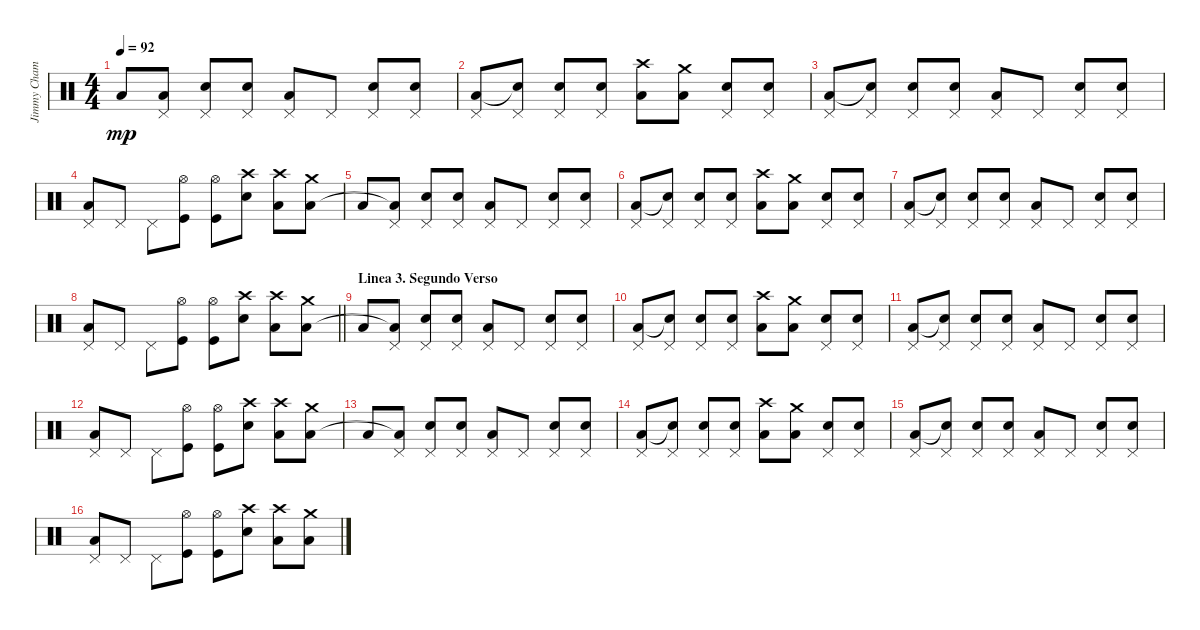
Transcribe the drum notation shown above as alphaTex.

\track ("Jimmy Chamberlin" "Jimmy Cham") {instrument percussion}
\staff {score}
\articulation defaults
\ts (4 4)
\tempo 92
\clef neutral
\ks c "Low Floor Tom (hit)".8{dy mp}
("Pedal Hi-Hat (hit)" "Low Floor Tom (hit)"{t}).8 ("Pedal Hi-Hat (hit)" "Snare (hit) 2").8 ("Pedal Hi-Hat (hit)" "Snare (hit) 2").8 ("Pedal Hi-Hat (hit)" "Low Tom (hit)").8 "Pedal Hi-Hat (hit)".8 ("Pedal Hi-Hat (hit)" "Snare (hit) 2").8 ("Pedal Hi-Hat (hit)" "Snare (hit) 2").8 |
("Pedal Hi-Hat (hit)" "Low Tom (hit)").8 ("Pedal Hi-Hat (hit)" "Snare (hit)"{t}).8 ("Pedal Hi-Hat (hit)" "Snare (hit) 2").8 ("Pedal Hi-Hat (hit)" "Snare (hit) 2").8 ("Crash high (hit)" "Low Tom (hit)").8 ("Crash medium (hit)" "Low Floor Tom (hit)").8 ("Pedal Hi-Hat (hit)" "Snare (hit) 2").8 ("Pedal Hi-Hat (hit)" "Snare (hit) 2").8 |
("Pedal Hi-Hat (hit)" "Low Tom (hit)").8 ("Pedal Hi-Hat (hit)" "Snare (hit)"{t}).8 ("Pedal Hi-Hat (hit)" "Snare (hit) 2").8 ("Pedal Hi-Hat (hit)" "Snare (hit) 2").8 ("Pedal Hi-Hat (hit)" "Low Floor Tom (hit)").8 "Pedal Hi-Hat (hit)".8 ("Pedal Hi-Hat (hit)" "Snare (hit) 2").8 ("Pedal Hi-Hat (hit)" "Snare (hit) 2").8 |
("Pedal Hi-Hat (hit)" "Low Tom (hit)").8 "Pedal Hi-Hat (hit)".8 "Pedal Hi-Hat (hit)".8 ("Hi-Hat (open)" "Kick (hit)").8 ("Hi-Hat (open)" "Kick (hit)").8 ("Crash high (hit)" "Snare (hit) 2").8 ("Crash high (hit)" "Low Tom (hit)").8 ("Crash medium (hit)" "Low Floor Tom (hit)").8 |
"Low Floor Tom (hit)".8 ("Pedal Hi-Hat (hit)" "Low Floor Tom (hit)"{t}).8 ("Pedal Hi-Hat (hit)" "Snare (hit) 2").8 ("Pedal Hi-Hat (hit)" "Snare (hit) 2").8 ("Pedal Hi-Hat (hit)" "Low Tom (hit)").8 "Pedal Hi-Hat (hit)".8 ("Pedal Hi-Hat (hit)" "Snare (hit) 2").8 ("Pedal Hi-Hat (hit)" "Snare (hit) 2").8 |
("Pedal Hi-Hat (hit)" "Low Tom (hit)").8 ("Pedal Hi-Hat (hit)" "Snare (hit)"{t}).8 ("Pedal Hi-Hat (hit)" "Snare (hit) 2").8 ("Pedal Hi-Hat (hit)" "Snare (hit) 2").8 ("Crash high (hit)" "Low Tom (hit)").8 ("Crash medium (hit)" "Low Floor Tom (hit)").8 ("Pedal Hi-Hat (hit)" "Snare (hit) 2").8 ("Pedal Hi-Hat (hit)" "Snare (hit) 2").8 |
("Pedal Hi-Hat (hit)" "Low Tom (hit)").8 ("Pedal Hi-Hat (hit)" "Snare (hit)"{t}).8 ("Pedal Hi-Hat (hit)" "Snare (hit) 2").8 ("Pedal Hi-Hat (hit)" "Snare (hit) 2").8 ("Pedal Hi-Hat (hit)" "Low Floor Tom (hit)").8 "Pedal Hi-Hat (hit)".8 ("Pedal Hi-Hat (hit)" "Snare (hit) 2").8 ("Pedal Hi-Hat (hit)" "Snare (hit) 2").8 |
\barLineRight lightlight
("Pedal Hi-Hat (hit)" "Low Tom (hit)").8 "Pedal Hi-Hat (hit)".8 "Pedal Hi-Hat (hit)".8 ("Hi-Hat (open)" "Kick (hit)").8 ("Hi-Hat (open)" "Kick (hit)").8 ("Crash high (hit)" "Snare (hit) 2").8 ("Crash high (hit)" "Low Tom (hit)").8 ("Crash medium (hit)" "Low Floor Tom (hit)").8 |
\section ("" "Linea 3. Segundo Verso")
"Low Floor Tom (hit)".8 ("Pedal Hi-Hat (hit)" "Low Floor Tom (hit)"{t}).8 ("Pedal Hi-Hat (hit)" "Snare (hit) 2").8 ("Pedal Hi-Hat (hit)" "Snare (hit) 2").8 ("Pedal Hi-Hat (hit)" "Low Tom (hit)").8 "Pedal Hi-Hat (hit)".8 ("Pedal Hi-Hat (hit)" "Snare (hit) 2").8 ("Pedal Hi-Hat (hit)" "Snare (hit) 2").8 |
("Pedal Hi-Hat (hit)" "Low Tom (hit)").8 ("Pedal Hi-Hat (hit)" "Snare (hit)"{t}).8 ("Pedal Hi-Hat (hit)" "Snare (hit) 2").8 ("Pedal Hi-Hat (hit)" "Snare (hit) 2").8 ("Crash high (hit)" "Low Tom (hit)").8 ("Crash medium (hit)" "Low Floor Tom (hit)").8 ("Pedal Hi-Hat (hit)" "Snare (hit) 2").8 ("Pedal Hi-Hat (hit)" "Snare (hit) 2").8 |
("Pedal Hi-Hat (hit)" "Low Tom (hit)").8 ("Pedal Hi-Hat (hit)" "Snare (hit)"{t}).8 ("Pedal Hi-Hat (hit)" "Snare (hit) 2").8 ("Pedal Hi-Hat (hit)" "Snare (hit) 2").8 ("Pedal Hi-Hat (hit)" "Low Floor Tom (hit)").8 "Pedal Hi-Hat (hit)".8 ("Pedal Hi-Hat (hit)" "Snare (hit) 2").8 ("Pedal Hi-Hat (hit)" "Snare (hit) 2").8 |
("Pedal Hi-Hat (hit)" "Low Tom (hit)").8 "Pedal Hi-Hat (hit)".8 "Pedal Hi-Hat (hit)".8 ("Hi-Hat (open)" "Kick (hit)").8 ("Hi-Hat (open)" "Kick (hit)").8 ("Crash high (hit)" "Snare (hit) 2").8 ("Crash high (hit)" "Low Tom (hit)").8 ("Crash medium (hit)" "Low Floor Tom (hit)").8 |
"Low Floor Tom (hit)".8 ("Pedal Hi-Hat (hit)" "Low Floor Tom (hit)"{t}).8 ("Pedal Hi-Hat (hit)" "Snare (hit) 2").8 ("Pedal Hi-Hat (hit)" "Snare (hit) 2").8 ("Pedal Hi-Hat (hit)" "Low Tom (hit)").8 "Pedal Hi-Hat (hit)".8 ("Pedal Hi-Hat (hit)" "Snare (hit) 2").8 ("Pedal Hi-Hat (hit)" "Snare (hit) 2").8 |
("Pedal Hi-Hat (hit)" "Low Tom (hit)").8 ("Pedal Hi-Hat (hit)" "Snare (hit)"{t}).8 ("Pedal Hi-Hat (hit)" "Snare (hit) 2").8 ("Pedal Hi-Hat (hit)" "Snare (hit) 2").8 ("Crash high (hit)" "Low Tom (hit)").8 ("Crash medium (hit)" "Low Floor Tom (hit)").8 ("Pedal Hi-Hat (hit)" "Snare (hit) 2").8 ("Pedal Hi-Hat (hit)" "Snare (hit) 2").8 |
("Pedal Hi-Hat (hit)" "Low Tom (hit)").8 ("Pedal Hi-Hat (hit)" "Snare (hit)"{t}).8 ("Pedal Hi-Hat (hit)" "Snare (hit) 2").8 ("Pedal Hi-Hat (hit)" "Snare (hit) 2").8 ("Pedal Hi-Hat (hit)" "Low Floor Tom (hit)").8 "Pedal Hi-Hat (hit)".8 ("Pedal Hi-Hat (hit)" "Snare (hit) 2").8 ("Pedal Hi-Hat (hit)" "Snare (hit) 2").8 |
("Pedal Hi-Hat (hit)" "Low Tom (hit)").8 "Pedal Hi-Hat (hit)".8 "Pedal Hi-Hat (hit)".8 ("Hi-Hat (open)" "Kick (hit)").8 ("Hi-Hat (open)" "Kick (hit)").8 ("Crash high (hit)" "Snare (hit) 2").8 ("Crash high (hit)" "Low Tom (hit)").8 ("Crash medium (hit)" "Low Floor Tom (hit)").8
